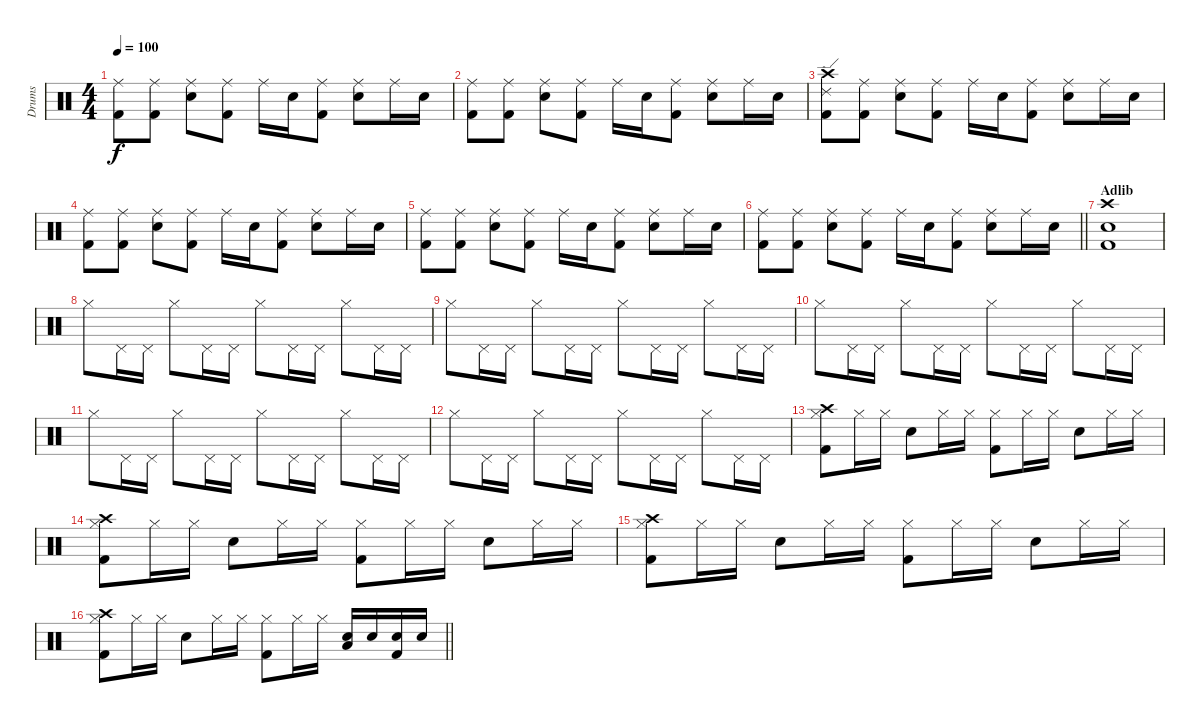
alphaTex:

\track ("Drums" "Drums") {instrument percussion}
\staff {score}
\articulation defaults
\ts (4 4)
\tempo 100
\clef neutral
\ks c
("Ride (middle)" "Kick (hit) 2").8{dy f} ("Ride (middle)" "Kick (hit) 2").8 ("Electric Snare (hit)" "Ride (middle)").8 ("Ride (middle)" "Kick (hit) 2").8 "Ride (middle)".16 "Electric Snare (hit)".16 ("Ride (middle)" "Kick (hit) 2").8 ("Electric Snare (hit)" "Ride (middle)").8 "Ride (middle)".16 "Electric Snare (hit)".16 |
("Ride (middle)" "Kick (hit) 2").8 ("Ride (middle)" "Kick (hit) 2").8 ("Electric Snare (hit)" "Ride (middle)").8 ("Ride (middle)" "Kick (hit) 2").8 "Ride (middle)".16 "Electric Snare (hit)".16 ("Ride (middle)" "Kick (hit) 2").8 ("Electric Snare (hit)" "Ride (middle)").8 "Ride (middle)".16 "Electric Snare (hit)".16 |
("Crash high (hit)" "Ride (edge) 2" "Kick (hit) 2").8 ("Ride (middle)" "Kick (hit) 2").8 ("Electric Snare (hit)" "Ride (middle)").8 ("Ride (middle)" "Kick (hit) 2").8 "Ride (middle)".16 "Electric Snare (hit)".16 ("Ride (middle)" "Kick (hit) 2").8 ("Electric Snare (hit)" "Ride (middle)").8 "Ride (middle)".16 "Electric Snare (hit)".16 |
("Ride (middle)" "Kick (hit) 2").8 ("Ride (middle)" "Kick (hit) 2").8 ("Electric Snare (hit)" "Ride (middle)").8 ("Ride (middle)" "Kick (hit) 2").8 "Ride (middle)".16 "Electric Snare (hit)".16 ("Ride (middle)" "Kick (hit) 2").8 ("Electric Snare (hit)" "Ride (middle)").8 "Ride (middle)".16 "Electric Snare (hit)".16 |
("Ride (middle)" "Kick (hit) 2").8 ("Ride (middle)" "Kick (hit) 2").8 ("Electric Snare (hit)" "Ride (middle)").8 ("Ride (middle)" "Kick (hit) 2").8 "Ride (middle)".16 "Electric Snare (hit)".16 ("Ride (middle)" "Kick (hit) 2").8 ("Electric Snare (hit)" "Ride (middle)").8 "Ride (middle)".16 "Electric Snare (hit)".16 |
\barLineRight lightlight
("Ride (middle)" "Kick (hit) 2").8 ("Ride (middle)" "Kick (hit) 2").8 ("Electric Snare (hit)" "Ride (middle)").8 ("Ride (middle)" "Kick (hit) 2").8 "Ride (middle)".16 "Electric Snare (hit)".16 ("Ride (middle)" "Kick (hit) 2").8 ("Electric Snare (hit)" "Ride (middle)").8 "Ride (middle)".16 "Electric Snare (hit)".16 |
\section ("" "Adlib")
("Electric Snare (hit)" "Crash high (hit)" "Kick (hit) 2").1 |
"Hi-Hat (closed)".8 "Pedal Hi-Hat (hit)".16 "Pedal Hi-Hat (hit)".16 "Hi-Hat (closed)".8 "Pedal Hi-Hat (hit)".16 "Pedal Hi-Hat (hit)".16 "Hi-Hat (closed)".8 "Pedal Hi-Hat (hit)".16 "Pedal Hi-Hat (hit)".16 "Hi-Hat (closed)".8 "Pedal Hi-Hat (hit)".16 "Pedal Hi-Hat (hit)".16 |
"Hi-Hat (closed)".8 "Pedal Hi-Hat (hit)".16 "Pedal Hi-Hat (hit)".16 "Hi-Hat (closed)".8 "Pedal Hi-Hat (hit)".16 "Pedal Hi-Hat (hit)".16 "Hi-Hat (closed)".8 "Pedal Hi-Hat (hit)".16 "Pedal Hi-Hat (hit)".16 "Hi-Hat (closed)".8 "Pedal Hi-Hat (hit)".16 "Pedal Hi-Hat (hit)".16 |
"Hi-Hat (closed)".8 "Pedal Hi-Hat (hit)".16 "Pedal Hi-Hat (hit)".16 "Hi-Hat (closed)".8 "Pedal Hi-Hat (hit)".16 "Pedal Hi-Hat (hit)".16 "Hi-Hat (closed)".8 "Pedal Hi-Hat (hit)".16 "Pedal Hi-Hat (hit)".16 "Hi-Hat (closed)".8 "Pedal Hi-Hat (hit)".16 "Pedal Hi-Hat (hit)".16 |
"Hi-Hat (closed)".8 "Pedal Hi-Hat (hit)".16 "Pedal Hi-Hat (hit)".16 "Hi-Hat (closed)".8 "Pedal Hi-Hat (hit)".16 "Pedal Hi-Hat (hit)".16 "Hi-Hat (closed)".8 "Pedal Hi-Hat (hit)".16 "Pedal Hi-Hat (hit)".16 "Hi-Hat (closed)".8 "Pedal Hi-Hat (hit)".16 "Pedal Hi-Hat (hit)".16 |
"Hi-Hat (closed)".8 "Pedal Hi-Hat (hit)".16 "Pedal Hi-Hat (hit)".16 "Hi-Hat (closed)".8 "Pedal Hi-Hat (hit)".16 "Pedal Hi-Hat (hit)".16 "Hi-Hat (closed)".8 "Pedal Hi-Hat (hit)".16 "Pedal Hi-Hat (hit)".16 "Hi-Hat (closed)".8 "Pedal Hi-Hat (hit)".16 "Pedal Hi-Hat (hit)".16 |
("Crash high (hit)" "Hi-Hat (closed)" "Kick (hit) 2").8 "Hi-Hat (closed)".16 "Hi-Hat (closed)".16 "Electric Snare (hit)".8 "Hi-Hat (closed)".16 "Hi-Hat (closed)".16 ("Hi-Hat (closed)" "Kick (hit) 2").8 "Hi-Hat (closed)".16 "Hi-Hat (closed)".16 "Electric Snare (hit)".8 "Hi-Hat (closed)".16 "Hi-Hat (closed)".16 |
("Crash high (hit)" "Hi-Hat (closed)" "Kick (hit) 2").8 "Hi-Hat (closed)".16 "Hi-Hat (closed)".16 "Electric Snare (hit)".8 "Hi-Hat (closed)".16 "Hi-Hat (closed)".16 ("Hi-Hat (closed)" "Kick (hit) 2").8 "Hi-Hat (closed)".16 "Hi-Hat (closed)".16 "Electric Snare (hit)".8 "Hi-Hat (closed)".16 "Hi-Hat (closed)".16 |
("Crash high (hit)" "Hi-Hat (closed)" "Kick (hit) 2").8 "Hi-Hat (closed)".16 "Hi-Hat (closed)".16 "Electric Snare (hit)".8 "Hi-Hat (closed)".16 "Hi-Hat (closed)".16 ("Hi-Hat (closed)" "Kick (hit) 2").8 "Hi-Hat (closed)".16 "Hi-Hat (closed)".16 "Electric Snare (hit)".8 "Hi-Hat (closed)".16 "Hi-Hat (closed)".16 |
\barLineRight lightlight
("Crash high (hit)" "Hi-Hat (closed)" "Kick (hit) 2").8 "Hi-Hat (closed)".16 "Hi-Hat (closed)".16 "Electric Snare (hit)".8 "Hi-Hat (closed)".16 "Hi-Hat (closed)".16 ("Hi-Hat (closed)" "Kick (hit) 2").8 "Hi-Hat (closed)".16 "Hi-Hat (closed)".16 ("Electric Snare (hit)" "Low Tom (hit)").16 "Electric Snare (hit)".16 ("Electric Snare (hit)" "Kick (hit) 2").16 "Electric Snare (hit)".16
